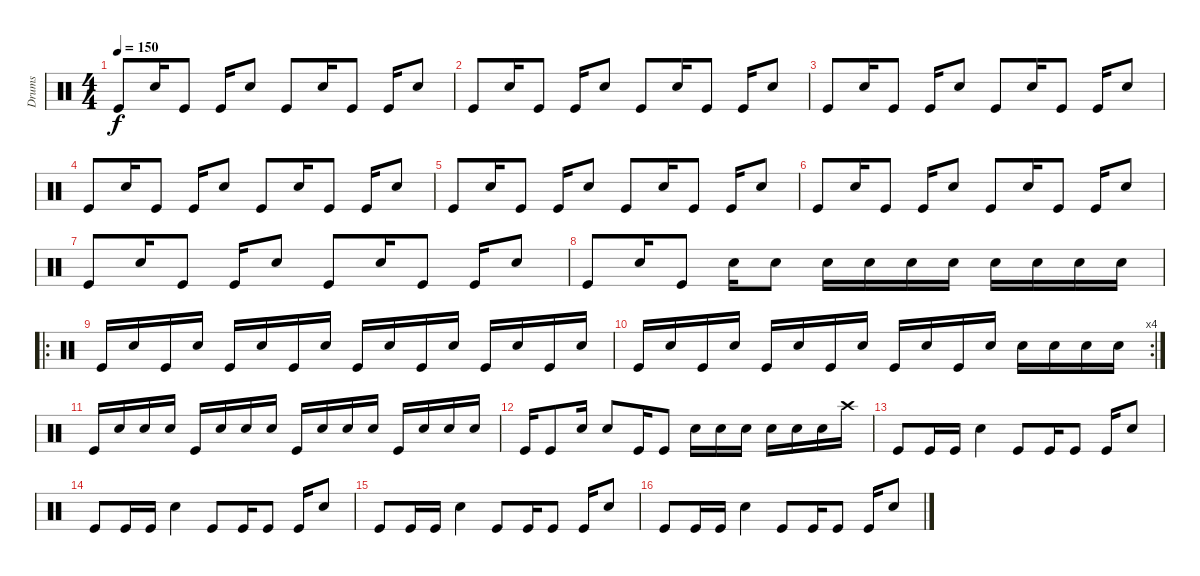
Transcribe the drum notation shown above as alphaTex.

\track ("Drums" "Drums") {instrument percussion}
\staff {score}
\articulation defaults
\ts (4 4)
\tempo 150
\clef neutral
\ks c "Kick (hit)".8{dy f} "Electric Snare (hit)".16 "Kick (hit)".8 "Kick (hit)".16 "Electric Snare (hit)".8 "Kick (hit)".8 "Electric Snare (hit)".16 "Kick (hit)".8 "Kick (hit)".16 "Electric Snare (hit)".8
|
"Kick (hit)".8 "Electric Snare (hit)".16 "Kick (hit)".8 "Kick (hit)".16 "Electric Snare (hit)".8 "Kick (hit)".8 "Electric Snare (hit)".16 "Kick (hit)".8 "Kick (hit)".16 "Electric Snare (hit)".8 |
"Kick (hit)".8 "Electric Snare (hit)".16 "Kick (hit)".8 "Kick (hit)".16 "Electric Snare (hit)".8 "Kick (hit)".8 "Electric Snare (hit)".16 "Kick (hit)".8 "Kick (hit)".16 "Electric Snare (hit)".8 |
"Kick (hit)".8 "Electric Snare (hit)".16 "Kick (hit)".8 "Kick (hit)".16 "Electric Snare (hit)".8 "Kick (hit)".8 "Electric Snare (hit)".16 "Kick (hit)".8 "Kick (hit)".16 "Electric Snare (hit)".8 |
"Kick (hit)".8 "Electric Snare (hit)".16 "Kick (hit)".8 "Kick (hit)".16 "Electric Snare (hit)".8 "Kick (hit)".8 "Electric Snare (hit)".16 "Kick (hit)".8 "Kick (hit)".16 "Electric Snare (hit)".8 |
"Kick (hit)".8 "Electric Snare (hit)".16 "Kick (hit)".8 "Kick (hit)".16 "Electric Snare (hit)".8 "Kick (hit)".8 "Electric Snare (hit)".16 "Kick (hit)".8 "Kick (hit)".16 "Electric Snare (hit)".8 |
"Kick (hit)".8 "Electric Snare (hit)".16 "Kick (hit)".8 "Kick (hit)".16 "Electric Snare (hit)".8 "Kick (hit)".8 "Electric Snare (hit)".16 "Kick (hit)".8 "Kick (hit)".16 "Electric Snare (hit)".8 |
"Kick (hit)".8 "Electric Snare (hit)".16 "Kick (hit)".8 "Electric Snare (hit)".16 "Electric Snare (hit)".8 "Electric Snare (hit)".16 "Electric Snare (hit)".16 "Electric Snare (hit)".16 "Electric Snare (hit)".16 "Electric Snare (hit)".16 "Electric Snare (hit)".16 "Electric Snare (hit)".16 "Electric Snare (hit)".16 |
\ro "Kick (hit)".16 "Electric Snare (hit)".16 "Kick (hit)".16 "Electric Snare (hit)".16 "Kick (hit)".16 "Electric Snare (hit)".16 "Kick (hit)".16 "Electric Snare (hit)".16 "Kick (hit)".16 "Electric Snare (hit)".16 "Kick (hit)".16 "Electric Snare (hit)".16 "Kick (hit)".16 "Electric Snare (hit)".16 "Kick (hit)".16 "Electric Snare (hit)".16
|
\rc 4 "Kick (hit)".16 "Electric Snare (hit)".16 "Kick (hit)".16 "Electric Snare (hit)".16 "Kick (hit)".16 "Electric Snare (hit)".16 "Kick (hit)".16 "Electric Snare (hit)".16 "Kick (hit)".16 "Electric Snare (hit)".16 "Kick (hit)".16 "Electric Snare (hit)".16 "Electric Snare (hit)".16 "Electric Snare (hit)".16 "Electric Snare (hit)".16 "Electric Snare (hit)".16
|
"Kick (hit)".16 "Electric Snare (hit)".16 "Electric Snare (hit)".16 "Electric Snare (hit)".16 "Kick (hit)".16 "Electric Snare (hit)".16 "Electric Snare (hit)".16 "Electric Snare (hit)".16 "Kick (hit)".16 "Electric Snare (hit)".16 "Electric Snare (hit)".16 "Electric Snare (hit)".16 "Kick (hit)".16 "Electric Snare (hit)".16 "Electric Snare (hit)".16 "Electric Snare (hit)".16 |
"Kick (hit)".16 "Kick (hit)".8 "Electric Snare (hit)".16 "Electric Snare (hit)".8 "Kick (hit)".16 "Kick (hit)".8 "Electric Snare (hit)".16 "Electric Snare (hit)".16 "Electric Snare (hit)".16 "Electric Snare (hit)".16 "Electric Snare (hit)".16 "Electric Snare (hit)".16 "Crash high (hit)".16 |
"Kick (hit)".8 "Kick (hit)".16 "Kick (hit)".16 "Electric Snare (hit)".4 "Kick (hit)".8 "Kick (hit)".16 "Kick (hit)".8 "Kick (hit)".16 "Electric Snare (hit)".8 |
"Kick (hit)".8 "Kick (hit)".16 "Kick (hit)".16 "Electric Snare (hit)".4 "Kick (hit)".8 "Kick (hit)".16 "Kick (hit)".8 "Kick (hit)".16 "Electric Snare (hit)".8 |
"Kick (hit)".8 "Kick (hit)".16 "Kick (hit)".16 "Electric Snare (hit)".4 "Kick (hit)".8 "Kick (hit)".16 "Kick (hit)".8 "Kick (hit)".16 "Electric Snare (hit)".8 |
"Kick (hit)".8 "Kick (hit)".16 "Kick (hit)".16 "Electric Snare (hit)".4 "Kick (hit)".8 "Kick (hit)".16 "Kick (hit)".8 "Kick (hit)".16 "Electric Snare (hit)".8
